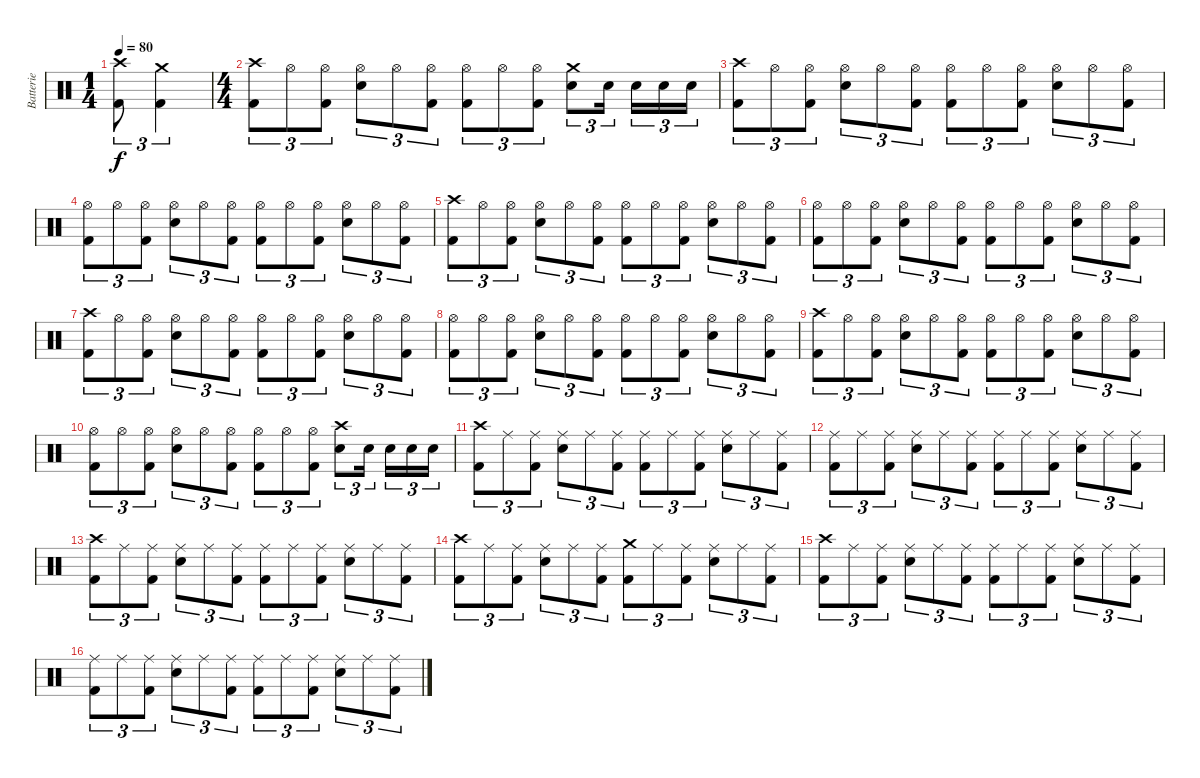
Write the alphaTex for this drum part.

\track ("Batterie" "Batterie") {instrument percussion}
\staff {score}
\articulation defaults
\ts (1 4)
\tempo 80
\clef neutral
\ks c
("Crash high (hit)" "Kick (hit) 2").8{tu (3 2) dy f} ("Crash medium (hit)" "Kick (hit) 2").4{tu (3 2)} |
\ts (4 4)
("Crash high (hit)" "Kick (hit) 2").8{tu (3 2)} "Hi-Hat (open)".8{tu (3 2)} ("Hi-Hat (open)" "Kick (hit) 2").8{tu (3 2)} ("Hi-Hat (open)" "Electric Snare (hit)").8{tu (3 2)} "Hi-Hat (open)".8{tu (3 2)} ("Hi-Hat (open)" "Kick (hit) 2").8{tu (3 2)} ("Hi-Hat (open)" "Kick (hit) 2").8{tu (3 2)} "Hi-Hat (open)".8{tu (3 2)} ("Hi-Hat (open)" "Kick (hit) 2").8{tu (3 2)} ("Crash medium (hit)" "Electric Snare (hit)").8{tu (3 2)} "Electric Snare (hit)".16{tu (3 2)} "Electric Snare (hit)".16{tu (3 2)} "Electric Snare (hit)".16{tu (3 2)} "Electric Snare (hit)".16{tu (3 2)} |
("Crash high (hit)" "Kick (hit) 2").8{tu (3 2)} "Hi-Hat (open)".8{tu (3 2)} ("Hi-Hat (open)" "Kick (hit) 2").8{tu (3 2)} ("Hi-Hat (open)" "Electric Snare (hit)").8{tu (3 2)} "Hi-Hat (open)".8{tu (3 2)} ("Hi-Hat (open)" "Kick (hit) 2").8{tu (3 2)} ("Hi-Hat (open)" "Kick (hit) 2").8{tu (3 2)} "Hi-Hat (open)".8{tu (3 2)} ("Hi-Hat (open)" "Kick (hit) 2").8{tu (3 2)} ("Hi-Hat (open)" "Electric Snare (hit)").8{tu (3 2)} "Hi-Hat (open)".8{tu (3 2)} ("Hi-Hat (open)" "Kick (hit) 2").8{tu (3 2)} |
("Hi-Hat (open)" "Kick (hit) 2").8{tu (3 2)} "Hi-Hat (open)".8{tu (3 2)} ("Hi-Hat (open)" "Kick (hit) 2").8{tu (3 2)} ("Hi-Hat (open)" "Electric Snare (hit)").8{tu (3 2)} "Hi-Hat (open)".8{tu (3 2)} ("Hi-Hat (open)" "Kick (hit) 2").8{tu (3 2)} ("Hi-Hat (open)" "Kick (hit) 2").8{tu (3 2)} "Hi-Hat (open)".8{tu (3 2)} ("Hi-Hat (open)" "Kick (hit) 2").8{tu (3 2)} ("Hi-Hat (open)" "Electric Snare (hit)").8{tu (3 2)} "Hi-Hat (open)".8{tu (3 2)} ("Hi-Hat (open)" "Kick (hit) 2").8{tu (3 2)} |
("Crash high (hit)" "Kick (hit) 2").8{tu (3 2)} "Hi-Hat (open)".8{tu (3 2)} ("Hi-Hat (open)" "Kick (hit) 2").8{tu (3 2)} ("Hi-Hat (open)" "Electric Snare (hit)").8{tu (3 2)} "Hi-Hat (open)".8{tu (3 2)} ("Hi-Hat (open)" "Kick (hit) 2").8{tu (3 2)} ("Hi-Hat (open)" "Kick (hit) 2").8{tu (3 2)} "Hi-Hat (open)".8{tu (3 2)} ("Hi-Hat (open)" "Kick (hit) 2").8{tu (3 2)} ("Hi-Hat (open)" "Electric Snare (hit)").8{tu (3 2)} "Hi-Hat (open)".8{tu (3 2)} ("Hi-Hat (open)" "Kick (hit) 2").8{tu (3 2)} |
("Hi-Hat (open)" "Kick (hit) 2").8{tu (3 2)} "Hi-Hat (open)".8{tu (3 2)} ("Hi-Hat (open)" "Kick (hit) 2").8{tu (3 2)} ("Hi-Hat (open)" "Electric Snare (hit)").8{tu (3 2)} "Hi-Hat (open)".8{tu (3 2)} ("Hi-Hat (open)" "Kick (hit) 2").8{tu (3 2)} ("Hi-Hat (open)" "Kick (hit) 2").8{tu (3 2)} "Hi-Hat (open)".8{tu (3 2)} ("Hi-Hat (open)" "Kick (hit) 2").8{tu (3 2)} ("Hi-Hat (open)" "Electric Snare (hit)").8{tu (3 2)} "Hi-Hat (open)".8{tu (3 2)} ("Hi-Hat (open)" "Kick (hit) 2").8{tu (3 2)} |
("Crash high (hit)" "Kick (hit) 2").8{tu (3 2)} "Hi-Hat (open)".8{tu (3 2)} ("Hi-Hat (open)" "Kick (hit) 2").8{tu (3 2)} ("Hi-Hat (open)" "Electric Snare (hit)").8{tu (3 2)} "Hi-Hat (open)".8{tu (3 2)} ("Hi-Hat (open)" "Kick (hit) 2").8{tu (3 2)} ("Hi-Hat (open)" "Kick (hit) 2").8{tu (3 2)} "Hi-Hat (open)".8{tu (3 2)} ("Hi-Hat (open)" "Kick (hit) 2").8{tu (3 2)} ("Hi-Hat (open)" "Electric Snare (hit)").8{tu (3 2)} "Hi-Hat (open)".8{tu (3 2)} ("Hi-Hat (open)" "Kick (hit) 2").8{tu (3 2)} |
("Hi-Hat (open)" "Kick (hit) 2").8{tu (3 2)} "Hi-Hat (open)".8{tu (3 2)} ("Hi-Hat (open)" "Kick (hit) 2").8{tu (3 2)} ("Hi-Hat (open)" "Electric Snare (hit)").8{tu (3 2)} "Hi-Hat (open)".8{tu (3 2)} ("Hi-Hat (open)" "Kick (hit) 2").8{tu (3 2)} ("Hi-Hat (open)" "Kick (hit) 2").8{tu (3 2)} "Hi-Hat (open)".8{tu (3 2)} ("Hi-Hat (open)" "Kick (hit) 2").8{tu (3 2)} ("Hi-Hat (open)" "Electric Snare (hit)").8{tu (3 2)} "Hi-Hat (open)".8{tu (3 2)} ("Hi-Hat (open)" "Kick (hit) 2").8{tu (3 2)} |
("Crash high (hit)" "Kick (hit) 2").8{tu (3 2)} "Hi-Hat (open)".8{tu (3 2)} ("Hi-Hat (open)" "Kick (hit) 2").8{tu (3 2)} ("Hi-Hat (open)" "Electric Snare (hit)").8{tu (3 2)} "Hi-Hat (open)".8{tu (3 2)} ("Hi-Hat (open)" "Kick (hit) 2").8{tu (3 2)} ("Hi-Hat (open)" "Kick (hit) 2").8{tu (3 2)} "Hi-Hat (open)".8{tu (3 2)} ("Hi-Hat (open)" "Kick (hit) 2").8{tu (3 2)} ("Hi-Hat (open)" "Electric Snare (hit)").8{tu (3 2)} "Hi-Hat (open)".8{tu (3 2)} ("Hi-Hat (open)" "Kick (hit) 2").8{tu (3 2)} |
("Hi-Hat (open)" "Kick (hit) 2").8{tu (3 2)} "Hi-Hat (open)".8{tu (3 2)} ("Hi-Hat (open)" "Kick (hit) 2").8{tu (3 2)} ("Hi-Hat (open)" "Electric Snare (hit)").8{tu (3 2)} "Hi-Hat (open)".8{tu (3 2)} ("Hi-Hat (open)" "Kick (hit) 2").8{tu (3 2)} ("Hi-Hat (open)" "Kick (hit) 2").8{tu (3 2)} "Hi-Hat (open)".8{tu (3 2)} ("Hi-Hat (open)" "Kick (hit) 2").8{tu (3 2)} ("Crash high (hit)" "Electric Snare (hit)").8{tu (3 2)} "Electric Snare (hit)".16{tu (3 2)} "Electric Snare (hit)".16{tu (3 2)} "Electric Snare (hit)".16{tu (3 2)} "Electric Snare (hit)".16{tu (3 2)} |
("Crash high (hit)" "Kick (hit) 2").8{tu (3 2)} "Ride (middle)".8{tu (3 2)} ("Ride (middle)" "Kick (hit) 2").8{tu (3 2)} ("Ride (middle)" "Electric Snare (hit)").8{tu (3 2)} "Ride (middle)".8{tu (3 2)} ("Ride (middle)" "Kick (hit) 2").8{tu (3 2)} ("Ride (middle)" "Kick (hit) 2").8{tu (3 2)} "Ride (middle)".8{tu (3 2)} ("Ride (middle)" "Kick (hit) 2").8{tu (3 2)} ("Ride (middle)" "Electric Snare (hit)").8{tu (3 2)} "Ride (middle)".8{tu (3 2)} ("Ride (middle)" "Kick (hit) 2").8{tu (3 2)} |
("Ride (middle)" "Kick (hit) 2").8{tu (3 2)} "Ride (middle)".8{tu (3 2)} ("Ride (middle)" "Kick (hit) 2").8{tu (3 2)} ("Ride (middle)" "Electric Snare (hit)").8{tu (3 2)} "Ride (middle)".8{tu (3 2)} ("Ride (middle)" "Kick (hit) 2").8{tu (3 2)} ("Ride (middle)" "Kick (hit) 2").8{tu (3 2)} "Ride (middle)".8{tu (3 2)} ("Ride (middle)" "Kick (hit) 2").8{tu (3 2)} ("Ride (middle)" "Electric Snare (hit)").8{tu (3 2)} "Ride (middle)".8{tu (3 2)} ("Ride (middle)" "Kick (hit) 2").8{tu (3 2)} |
("Crash high (hit)" "Kick (hit) 2").8{tu (3 2)} "Ride (middle)".8{tu (3 2)} ("Ride (middle)" "Kick (hit) 2").8{tu (3 2)} ("Ride (middle)" "Electric Snare (hit)").8{tu (3 2)} "Ride (middle)".8{tu (3 2)} ("Ride (middle)" "Kick (hit) 2").8{tu (3 2)} ("Ride (middle)" "Kick (hit) 2").8{tu (3 2)} "Ride (middle)".8{tu (3 2)} ("Ride (middle)" "Kick (hit) 2").8{tu (3 2)} ("Ride (middle)" "Electric Snare (hit)").8{tu (3 2)} "Ride (middle)".8{tu (3 2)} ("Ride (middle)" "Kick (hit) 2").8{tu (3 2)} |
("Crash high (hit)" "Kick (hit) 2").8{tu (3 2)} "Ride (middle)".8{tu (3 2)} ("Ride (middle)" "Kick (hit) 2").8{tu (3 2)} ("Ride (middle)" "Electric Snare (hit)").8{tu (3 2)} "Ride (middle)".8{tu (3 2)} ("Ride (middle)" "Kick (hit) 2").8{tu (3 2)} ("Crash medium (hit)" "Kick (hit) 2").8{tu (3 2)} "Ride (middle)".8{tu (3 2)} ("Ride (middle)" "Kick (hit) 2").8{tu (3 2)} ("Ride (middle)" "Electric Snare (hit)").8{tu (3 2)} "Ride (middle)".8{tu (3 2)} ("Ride (middle)" "Kick (hit) 2").8{tu (3 2)} |
("Crash high (hit)" "Kick (hit) 2").8{tu (3 2)} "Ride (middle)".8{tu (3 2)} ("Ride (middle)" "Kick (hit) 2").8{tu (3 2)} ("Ride (middle)" "Electric Snare (hit)").8{tu (3 2)} "Ride (middle)".8{tu (3 2)} ("Ride (middle)" "Kick (hit) 2").8{tu (3 2)} ("Ride (middle)" "Kick (hit) 2").8{tu (3 2)} "Ride (middle)".8{tu (3 2)} ("Ride (middle)" "Kick (hit) 2").8{tu (3 2)} ("Ride (middle)" "Electric Snare (hit)").8{tu (3 2)} "Ride (middle)".8{tu (3 2)} ("Ride (middle)" "Kick (hit) 2").8{tu (3 2)} |
("Ride (middle)" "Kick (hit) 2").8{tu (3 2)} "Ride (middle)".8{tu (3 2)} ("Ride (middle)" "Kick (hit) 2").8{tu (3 2)} ("Ride (middle)" "Electric Snare (hit)").8{tu (3 2)} "Ride (middle)".8{tu (3 2)} ("Ride (middle)" "Kick (hit) 2").8{tu (3 2)} ("Ride (middle)" "Kick (hit) 2").8{tu (3 2)} "Ride (middle)".8{tu (3 2)} ("Ride (middle)" "Kick (hit) 2").8{tu (3 2)} ("Ride (middle)" "Electric Snare (hit)").8{tu (3 2)} "Ride (middle)".8{tu (3 2)} ("Ride (middle)" "Kick (hit) 2").8{tu (3 2)}
